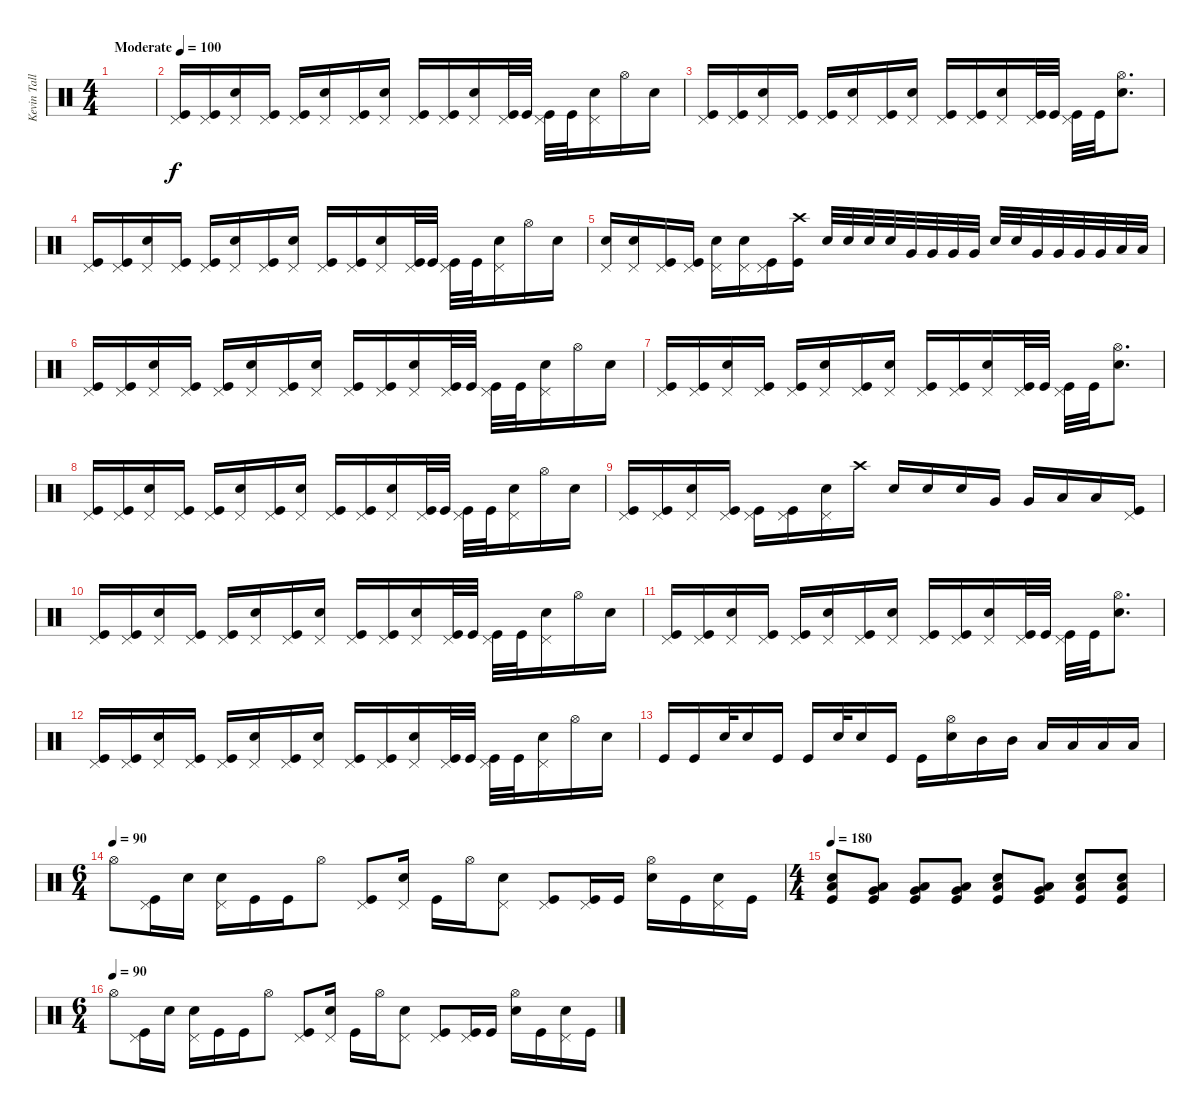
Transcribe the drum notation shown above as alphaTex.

\track ("Kevin Talley" "Kevin Tall") {instrument percussion}
\staff
\articulation defaults
\ts (4 4)
\tempo (100 "Moderate")
\clef neutral
\ks c
|
("Pedal Hi-Hat (hit)" "Kick (hit)").16 ("Pedal Hi-Hat (hit)" "Kick (hit)").16 ("Pedal Hi-Hat (hit)" "Snare (hit) 2").16 ("Pedal Hi-Hat (hit)" "Kick (hit)").16 ("Pedal Hi-Hat (hit)" "Kick (hit)").16 ("Pedal Hi-Hat (hit)" "Snare (hit) 2").16 ("Pedal Hi-Hat (hit)" "Kick (hit)").16 ("Pedal Hi-Hat (hit)" "Snare (hit) 2").16 ("Pedal Hi-Hat (hit)" "Kick (hit)").16 ("Pedal Hi-Hat (hit)" "Kick (hit)").16 ("Pedal Hi-Hat (hit)" "Snare (hit) 2").16 ("Pedal Hi-Hat (hit)" "Kick (hit)").32 "Kick (hit)".32 ("Pedal Hi-Hat (hit)" "Kick (hit)").32 "Kick (hit)".32 ("Pedal Hi-Hat (hit)" "Snare (hit) 2").16 "Hi-Hat (open)".16 "Snare (hit) 2".16 |
("Pedal Hi-Hat (hit)" "Kick (hit)").16 ("Pedal Hi-Hat (hit)" "Kick (hit)").16 ("Pedal Hi-Hat (hit)" "Snare (hit) 2").16 ("Pedal Hi-Hat (hit)" "Kick (hit)").16 ("Pedal Hi-Hat (hit)" "Kick (hit)").16 ("Pedal Hi-Hat (hit)" "Snare (hit) 2").16 ("Pedal Hi-Hat (hit)" "Kick (hit)").16 ("Pedal Hi-Hat (hit)" "Snare (hit) 2").16 ("Pedal Hi-Hat (hit)" "Kick (hit)").16 ("Pedal Hi-Hat (hit)" "Kick (hit)").16 ("Pedal Hi-Hat (hit)" "Snare (hit) 2").16 ("Pedal Hi-Hat (hit)" "Kick (hit)").32 "Kick (hit)".32 ("Pedal Hi-Hat (hit)" "Kick (hit)").32 "Kick (hit)".32 ("Hi-Hat (open)" "Snare (hit) 2").8{d} |
("Pedal Hi-Hat (hit)" "Kick (hit)").16 ("Pedal Hi-Hat (hit)" "Kick (hit)").16 ("Pedal Hi-Hat (hit)" "Snare (hit) 2").16 ("Pedal Hi-Hat (hit)" "Kick (hit)").16 ("Pedal Hi-Hat (hit)" "Kick (hit)").16 ("Pedal Hi-Hat (hit)" "Snare (hit) 2").16 ("Pedal Hi-Hat (hit)" "Kick (hit)").16 ("Pedal Hi-Hat (hit)" "Snare (hit) 2").16 ("Pedal Hi-Hat (hit)" "Kick (hit)").16 ("Pedal Hi-Hat (hit)" "Kick (hit)").16 ("Pedal Hi-Hat (hit)" "Snare (hit) 2").16 ("Pedal Hi-Hat (hit)" "Kick (hit)").32 "Kick (hit)".32 ("Pedal Hi-Hat (hit)" "Kick (hit)").32 "Kick (hit)".32 ("Pedal Hi-Hat (hit)" "Snare (hit) 2").16 "Hi-Hat (open)".16 "Snare (hit) 2".16 |
("Pedal Hi-Hat (hit)" "Snare (hit) 2").16 ("Pedal Hi-Hat (hit)" "Snare (hit) 2").16 ("Pedal Hi-Hat (hit)" "Kick (hit)").16 ("Pedal Hi-Hat (hit)" "Kick (hit)").16 ("Pedal Hi-Hat (hit)" "Snare (hit) 2").16 ("Pedal Hi-Hat (hit)" "Snare (hit) 2").16 ("Pedal Hi-Hat (hit)" "Kick (hit)").16 ("Crash high (hit)" "Kick (hit)").16 "Snare (hit) 2".32 "Snare (hit) 2".32 "Snare (hit) 2".32 "Snare (hit) 2".32 "Very Low Tom (hit)".32 "Very Low Tom (hit)".32 "Very Low Tom (hit)".32 "Very Low Tom (hit)".32 "Snare (hit) 2".32 "Snare (hit) 2".32 "Very Low Tom (hit)".32 "Very Low Tom (hit)".32 "Very Low Tom (hit)".32 "Very Low Tom (hit)".32 "Low Floor Tom (hit)".32 "Low Floor Tom (hit)".32 |
("Pedal Hi-Hat (hit)" "Kick (hit)").16 ("Pedal Hi-Hat (hit)" "Kick (hit)").16 ("Pedal Hi-Hat (hit)" "Snare (hit) 2").16 ("Pedal Hi-Hat (hit)" "Kick (hit)").16 ("Pedal Hi-Hat (hit)" "Kick (hit)").16 ("Pedal Hi-Hat (hit)" "Snare (hit) 2").16 ("Pedal Hi-Hat (hit)" "Kick (hit)").16 ("Pedal Hi-Hat (hit)" "Snare (hit) 2").16 ("Pedal Hi-Hat (hit)" "Kick (hit)").16 ("Pedal Hi-Hat (hit)" "Kick (hit)").16 ("Pedal Hi-Hat (hit)" "Snare (hit) 2").16 ("Pedal Hi-Hat (hit)" "Kick (hit)").32 "Kick (hit)".32 ("Pedal Hi-Hat (hit)" "Kick (hit)").32 "Kick (hit)".32 ("Pedal Hi-Hat (hit)" "Snare (hit) 2").16 "Hi-Hat (open)".16 "Snare (hit) 2".16 |
("Pedal Hi-Hat (hit)" "Kick (hit)").16 ("Pedal Hi-Hat (hit)" "Kick (hit)").16 ("Pedal Hi-Hat (hit)" "Snare (hit) 2").16 ("Pedal Hi-Hat (hit)" "Kick (hit)").16 ("Pedal Hi-Hat (hit)" "Kick (hit)").16 ("Pedal Hi-Hat (hit)" "Snare (hit) 2").16 ("Pedal Hi-Hat (hit)" "Kick (hit)").16 ("Pedal Hi-Hat (hit)" "Snare (hit) 2").16 ("Pedal Hi-Hat (hit)" "Kick (hit)").16 ("Pedal Hi-Hat (hit)" "Kick (hit)").16 ("Pedal Hi-Hat (hit)" "Snare (hit) 2").16 ("Pedal Hi-Hat (hit)" "Kick (hit)").32 "Kick (hit)".32 ("Pedal Hi-Hat (hit)" "Kick (hit)").32 "Kick (hit)".32 ("Hi-Hat (open)" "Snare (hit) 2").8{d} |
("Pedal Hi-Hat (hit)" "Kick (hit)").16 ("Pedal Hi-Hat (hit)" "Kick (hit)").16 ("Pedal Hi-Hat (hit)" "Snare (hit) 2").16 ("Pedal Hi-Hat (hit)" "Kick (hit)").16 ("Pedal Hi-Hat (hit)" "Kick (hit)").16 ("Pedal Hi-Hat (hit)" "Snare (hit) 2").16 ("Pedal Hi-Hat (hit)" "Kick (hit)").16 ("Pedal Hi-Hat (hit)" "Snare (hit) 2").16 ("Pedal Hi-Hat (hit)" "Kick (hit)").16 ("Pedal Hi-Hat (hit)" "Kick (hit)").16 ("Pedal Hi-Hat (hit)" "Snare (hit) 2").16 ("Pedal Hi-Hat (hit)" "Kick (hit)").32 "Kick (hit)".32 ("Pedal Hi-Hat (hit)" "Kick (hit)").32 "Kick (hit)".32 ("Pedal Hi-Hat (hit)" "Snare (hit) 2").16 "Hi-Hat (open)".16 "Snare (hit) 2".16 |
("Pedal Hi-Hat (hit)" "Kick (hit)").16 ("Pedal Hi-Hat (hit)" "Kick (hit)").16 ("Pedal Hi-Hat (hit)" "Snare (hit) 2").16 ("Pedal Hi-Hat (hit)" "Kick (hit)").16 ("Pedal Hi-Hat (hit)" "Kick (hit)").16 ("Pedal Hi-Hat (hit)" "Kick (hit)").16 ("Pedal Hi-Hat (hit)" "Snare (hit) 2").16 "Crash high (hit)".16 "Snare (hit) 2".16 "Snare (hit) 2".16 "Snare (hit) 2".16 "Very Low Tom (hit)".16 "Very Low Tom (hit)".16 "Low Floor Tom (hit)".16 "Low Floor Tom (hit)".16 ("Pedal Hi-Hat (hit)" "Kick (hit)").16 |
("Pedal Hi-Hat (hit)" "Kick (hit)").16 ("Pedal Hi-Hat (hit)" "Kick (hit)").16 ("Pedal Hi-Hat (hit)" "Snare (hit) 2").16 ("Pedal Hi-Hat (hit)" "Kick (hit)").16 ("Pedal Hi-Hat (hit)" "Kick (hit)").16 ("Pedal Hi-Hat (hit)" "Snare (hit) 2").16 ("Pedal Hi-Hat (hit)" "Kick (hit)").16 ("Pedal Hi-Hat (hit)" "Snare (hit) 2").16 ("Pedal Hi-Hat (hit)" "Kick (hit)").16 ("Pedal Hi-Hat (hit)" "Kick (hit)").16 ("Pedal Hi-Hat (hit)" "Snare (hit) 2").16 ("Pedal Hi-Hat (hit)" "Kick (hit)").32 "Kick (hit)".32 ("Pedal Hi-Hat (hit)" "Kick (hit)").32 "Kick (hit)".32 ("Pedal Hi-Hat (hit)" "Snare (hit) 2").16 "Hi-Hat (open)".16 "Snare (hit) 2".16 |
("Pedal Hi-Hat (hit)" "Kick (hit)").16 ("Pedal Hi-Hat (hit)" "Kick (hit)").16 ("Pedal Hi-Hat (hit)" "Snare (hit) 2").16 ("Pedal Hi-Hat (hit)" "Kick (hit)").16 ("Pedal Hi-Hat (hit)" "Kick (hit)").16 ("Pedal Hi-Hat (hit)" "Snare (hit) 2").16 ("Pedal Hi-Hat (hit)" "Kick (hit)").16 ("Pedal Hi-Hat (hit)" "Snare (hit) 2").16 ("Pedal Hi-Hat (hit)" "Kick (hit)").16 ("Pedal Hi-Hat (hit)" "Kick (hit)").16 ("Pedal Hi-Hat (hit)" "Snare (hit) 2").16 ("Pedal Hi-Hat (hit)" "Kick (hit)").32 "Kick (hit)".32 ("Pedal Hi-Hat (hit)" "Kick (hit)").32 "Kick (hit)".32 ("Hi-Hat (open)" "Snare (hit) 2").8{d} |
("Pedal Hi-Hat (hit)" "Kick (hit)").16 ("Pedal Hi-Hat (hit)" "Kick (hit)").16 ("Pedal Hi-Hat (hit)" "Snare (hit) 2").16 ("Pedal Hi-Hat (hit)" "Kick (hit)").16 ("Pedal Hi-Hat (hit)" "Kick (hit)").16 ("Pedal Hi-Hat (hit)" "Snare (hit) 2").16 ("Pedal Hi-Hat (hit)" "Kick (hit)").16 ("Pedal Hi-Hat (hit)" "Snare (hit) 2").16 ("Pedal Hi-Hat (hit)" "Kick (hit)").16 ("Pedal Hi-Hat (hit)" "Kick (hit)").16 ("Pedal Hi-Hat (hit)" "Snare (hit) 2").16 ("Pedal Hi-Hat (hit)" "Kick (hit)").32 "Kick (hit)".32 ("Pedal Hi-Hat (hit)" "Kick (hit)").32 "Kick (hit)".32 ("Pedal Hi-Hat (hit)" "Snare (hit) 2").16 "Hi-Hat (open)".16 "Snare (hit) 2".16 |
"Kick (hit)".16 "Kick (hit)".16 "Snare (hit) 2".32 "Snare (hit) 2".16 "Kick (hit)".16 "Kick (hit)".16 "Snare (hit) 2".32 "Snare (hit) 2".16 "Kick (hit)".16 "Kick (hit)".16 ("Hi-Hat (open)" "Snare (hit) 2").16 "Mid Tom (hit)".16 "Mid Tom (hit)".16 "Low Tom (hit)".16 "Low Tom (hit)".16 "Low Floor Tom (hit)".16 "Low Floor Tom (hit)".16 |
\ts (6 4)
\tempo (90)
"Hi-Hat (open)".8 ("Pedal Hi-Hat (hit)" "Kick (hit)").16 "Snare (hit) 2".16 ("Pedal Hi-Hat (hit)" "Snare (hit) 2").16 "Kick (hit)".16 "Kick (hit)".16 "Hi-Hat (open)".8 ("Pedal Hi-Hat (hit)" "Kick (hit)").8 ("Pedal Hi-Hat (hit)" "Snare (hit) 2").16 "Kick (hit)".16 "Hi-Hat (open)".16 ("Pedal Hi-Hat (hit)" "Snare (hit) 2").8 ("Pedal Hi-Hat (hit)" "Kick (hit)").8 ("Pedal Hi-Hat (hit)" "Kick (hit)").16 "Kick (hit)".16 ("Hi-Hat (open)" "Snare (hit) 2").16 "Kick (hit)".16 ("Pedal Hi-Hat (hit)" "Snare (hit) 2").16 "Kick (hit)".16 |
\ts (4 4)
\tempo 180
("Snare (hit) 2" "Low Floor Tom (hit)" "Kick (hit)").8 ("Very Low Tom (hit)" "Low Floor Tom (hit)" "Kick (hit)").8 ("Very Low Tom (hit)" "Low Floor Tom (hit)" "Kick (hit)").8 ("Very Low Tom (hit)" "Low Floor Tom (hit)" "Kick (hit)").8 ("Snare (hit) 2" "Low Floor Tom (hit)" "Kick (hit)").8 ("Very Low Tom (hit)" "Low Floor Tom (hit)" "Kick (hit)").8 ("Snare (hit) 2" "Low Floor Tom (hit)" "Kick (hit)").8 ("Snare (hit) 2" "Low Floor Tom (hit)" "Kick (hit)").8 |
\ts (6 4)
\tempo (90)
"Hi-Hat (open)".8 ("Pedal Hi-Hat (hit)" "Kick (hit)").16 "Snare (hit) 2".16 ("Pedal Hi-Hat (hit)" "Snare (hit) 2").16 "Kick (hit)".16 "Kick (hit)".16 "Hi-Hat (open)".8 ("Pedal Hi-Hat (hit)" "Kick (hit)").8 ("Pedal Hi-Hat (hit)" "Snare (hit) 2").16 "Kick (hit)".16 "Hi-Hat (open)".16 ("Pedal Hi-Hat (hit)" "Snare (hit) 2").8 ("Pedal Hi-Hat (hit)" "Kick (hit)").8 ("Pedal Hi-Hat (hit)" "Kick (hit)").16 "Kick (hit)".16 ("Hi-Hat (open)" "Snare (hit) 2").16 "Kick (hit)".16 ("Pedal Hi-Hat (hit)" "Snare (hit) 2").16 "Kick (hit)".16
